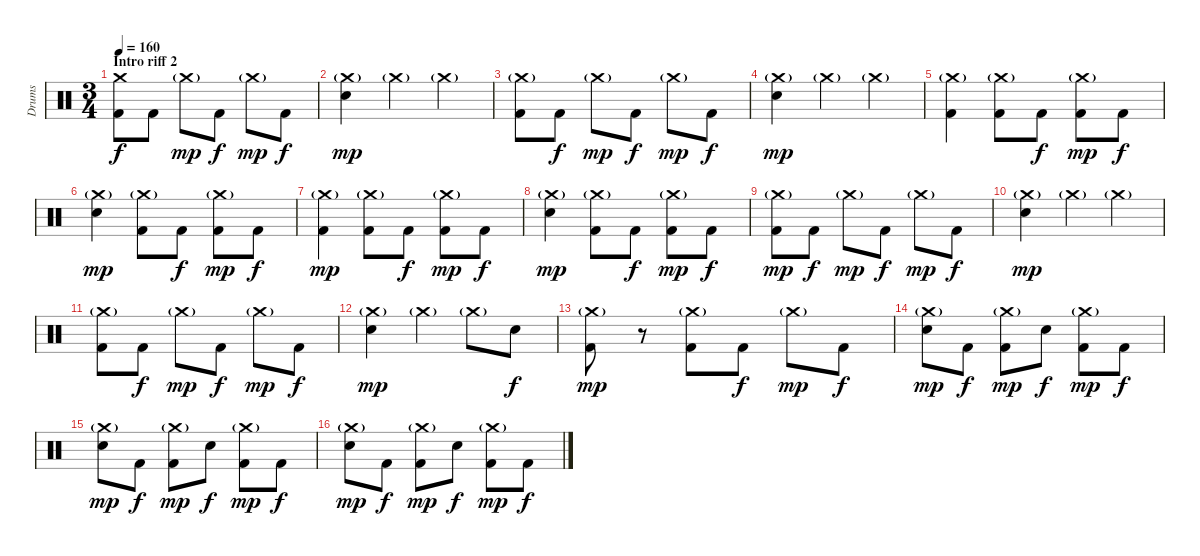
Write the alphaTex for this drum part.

\track ("Drums" "Drums") {instrument percussion}
\staff {score}
\articulation defaults
\ts (3 4)
\section ("" "Intro riff 2")
\tempo 160
\clef neutral
\ks c
("Crash medium (hit)" "Kick (hit) 2").8{dy f} "Kick (hit) 2".8 "Crash medium (hit)"{g}.8{dy mp} "Kick (hit) 2".8{dy f} "Crash medium (hit)"{g}.8{dy mp} "Kick (hit) 2".8{dy f} |
("Crash medium (hit)"{g} "Snare (hit) 2").4{dy mp} "Crash medium (hit)"{g}.4 "Crash medium (hit)"{g}.4 |
("Crash medium (hit)"{g} "Kick (hit) 2").8 "Kick (hit) 2".8{dy f} "Crash medium (hit)"{g}.8{dy mp} "Kick (hit) 2".8{dy f} "Crash medium (hit)"{g}.8{dy mp} "Kick (hit) 2".8{dy f} |
("Crash medium (hit)"{g} "Snare (hit) 2").4{dy mp} "Crash medium (hit)"{g}.4 "Crash medium (hit)"{g}.4 |
("Crash medium (hit)"{g} "Kick (hit) 2").4 ("Crash medium (hit)"{g} "Kick (hit) 2").8 "Kick (hit) 2".8{dy f} ("Crash medium (hit)"{g} "Kick (hit) 2").8{dy mp} "Kick (hit) 2".8{dy f} |
("Crash medium (hit)"{g} "Snare (hit) 2").4{dy mp} ("Crash medium (hit)"{g} "Kick (hit) 2").8 "Kick (hit) 2".8{dy f} ("Crash medium (hit)"{g} "Kick (hit) 2").8{dy mp} "Kick (hit) 2".8{dy f} |
("Crash medium (hit)"{g} "Kick (hit) 2").4{dy mp} ("Crash medium (hit)"{g} "Kick (hit) 2").8 "Kick (hit) 2".8{dy f} ("Crash medium (hit)"{g} "Kick (hit) 2").8{dy mp} "Kick (hit) 2".8{dy f} |
("Crash medium (hit)"{g} "Snare (hit) 2").4{dy mp} ("Crash medium (hit)"{g} "Kick (hit) 2").8 "Kick (hit) 2".8{dy f} ("Crash medium (hit)"{g} "Kick (hit) 2").8{dy mp} "Kick (hit) 2".8{dy f} |
("Crash medium (hit)"{g} "Kick (hit) 2").8{dy mp} "Kick (hit) 2".8{dy f} "Crash medium (hit)"{g}.8{dy mp} "Kick (hit) 2".8{dy f} "Crash medium (hit)"{g}.8{dy mp} "Kick (hit) 2".8{dy f} |
("Crash medium (hit)"{g} "Snare (hit) 2").4{dy mp} "Crash medium (hit)"{g}.4 "Crash medium (hit)"{g}.4 |
("Crash medium (hit)"{g} "Kick (hit) 2").8 "Kick (hit) 2".8{dy f} "Crash medium (hit)"{g}.8{dy mp} "Kick (hit) 2".8{dy f} "Crash medium (hit)"{g}.8{dy mp} "Kick (hit) 2".8{dy f} |
("Crash medium (hit)"{g} "Snare (hit) 2").4{dy mp} "Crash medium (hit)"{g}.4 "Crash medium (hit)"{g}.8 "Snare (hit) 2".8{dy f} |
("Crash medium (hit)"{g} "Kick (hit) 2").8{dy mp} r.8 ("Crash medium (hit)"{g} "Kick (hit) 2").8 "Kick (hit) 2".8{dy f} "Crash medium (hit)"{g}.8{dy mp} "Kick (hit) 2".8{dy f} |
("Crash medium (hit)"{g} "Snare (hit) 2").8{dy mp} "Kick (hit) 2".8{dy f} ("Crash medium (hit)"{g} "Kick (hit) 2").8{dy mp} "Snare (hit) 2".8{dy f} ("Crash medium (hit)"{g} "Kick (hit) 2").8{dy mp} "Kick (hit) 2".8{dy f} |
("Crash medium (hit)"{g} "Snare (hit) 2").8{dy mp} "Kick (hit) 2".8{dy f} ("Crash medium (hit)"{g} "Kick (hit) 2").8{dy mp} "Snare (hit) 2".8{dy f} ("Crash medium (hit)"{g} "Kick (hit) 2").8{dy mp} "Kick (hit) 2".8{dy f} |
("Crash medium (hit)"{g} "Snare (hit) 2").8{dy mp} "Kick (hit) 2".8{dy f} ("Crash medium (hit)"{g} "Kick (hit) 2").8{dy mp} "Snare (hit) 2".8{dy f} ("Crash medium (hit)"{g} "Kick (hit) 2").8{dy mp} "Kick (hit) 2".8{dy f}
